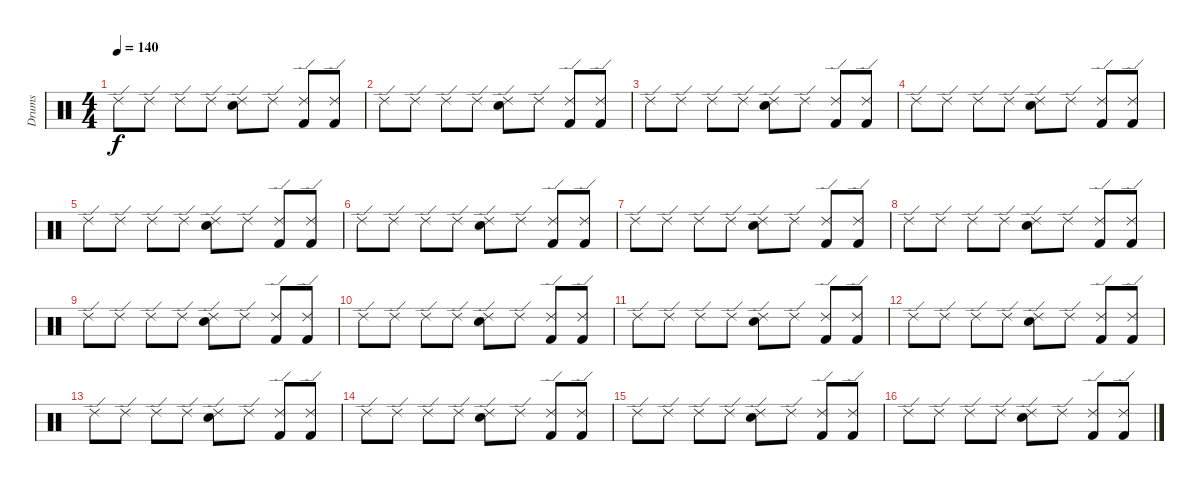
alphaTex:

\track ("Drums" "Drums") {instrument percussion}
\staff {score}
\articulation defaults
\ts (4 4)
\tempo 140
\clef neutral
\ks c "Ride (edge) 2".8{dy f} "Ride (edge) 2".8 "Ride (edge) 2".8 "Ride (edge) 2".8
("Ride (edge) 2" "Snare (hit) 2").8 "Ride (edge) 2".8 ("Ride (edge) 2" "Kick (hit) 2").8 ("Ride (edge) 2" "Kick (hit) 2").8 |
"Ride (edge) 2".8 "Ride (edge) 2".8 "Ride (edge) 2".8 "Ride (edge) 2".8 ("Ride (edge) 2" "Snare (hit) 2").8 "Ride (edge) 2".8 ("Ride (edge) 2" "Kick (hit) 2").8 ("Ride (edge) 2" "Kick (hit) 2").8 |
"Ride (edge) 2".8 "Ride (edge) 2".8 "Ride (edge) 2".8 "Ride (edge) 2".8 ("Ride (edge) 2" "Snare (hit) 2").8 "Ride (edge) 2".8 ("Ride (edge) 2" "Kick (hit) 2").8 ("Ride (edge) 2" "Kick (hit) 2").8 |
"Ride (edge) 2".8 "Ride (edge) 2".8 "Ride (edge) 2".8 "Ride (edge) 2".8 ("Ride (edge) 2" "Snare (hit) 2").8 "Ride (edge) 2".8 ("Ride (edge) 2" "Kick (hit) 2").8 ("Ride (edge) 2" "Kick (hit) 2").8 |
"Ride (edge) 2".8 "Ride (edge) 2".8 "Ride (edge) 2".8 "Ride (edge) 2".8 ("Ride (edge) 2" "Snare (hit) 2").8 "Ride (edge) 2".8 ("Ride (edge) 2" "Kick (hit) 2").8 ("Ride (edge) 2" "Kick (hit) 2").8 |
"Ride (edge) 2".8 "Ride (edge) 2".8 "Ride (edge) 2".8 "Ride (edge) 2".8 ("Ride (edge) 2" "Snare (hit) 2").8 "Ride (edge) 2".8 ("Ride (edge) 2" "Kick (hit) 2").8 ("Ride (edge) 2" "Kick (hit) 2").8 |
"Ride (edge) 2".8 "Ride (edge) 2".8 "Ride (edge) 2".8 "Ride (edge) 2".8 ("Ride (edge) 2" "Snare (hit) 2").8 "Ride (edge) 2".8 ("Ride (edge) 2" "Kick (hit) 2").8 ("Ride (edge) 2" "Kick (hit) 2").8 |
"Ride (edge) 2".8 "Ride (edge) 2".8 "Ride (edge) 2".8 "Ride (edge) 2".8 ("Ride (edge) 2" "Snare (hit) 2").8 "Ride (edge) 2".8 ("Ride (edge) 2" "Kick (hit) 2").8 ("Ride (edge) 2" "Kick (hit) 2").8 |
"Ride (edge) 2".8 "Ride (edge) 2".8 "Ride (edge) 2".8 "Ride (edge) 2".8 ("Ride (edge) 2" "Snare (hit) 2").8 "Ride (edge) 2".8 ("Ride (edge) 2" "Kick (hit) 2").8 ("Ride (edge) 2" "Kick (hit) 2").8 |
"Ride (edge) 2".8 "Ride (edge) 2".8 "Ride (edge) 2".8 "Ride (edge) 2".8 ("Ride (edge) 2" "Snare (hit) 2").8 "Ride (edge) 2".8 ("Ride (edge) 2" "Kick (hit) 2").8 ("Ride (edge) 2" "Kick (hit) 2").8 |
"Ride (edge) 2".8 "Ride (edge) 2".8 "Ride (edge) 2".8 "Ride (edge) 2".8 ("Ride (edge) 2" "Snare (hit) 2").8 "Ride (edge) 2".8 ("Ride (edge) 2" "Kick (hit) 2").8 ("Ride (edge) 2" "Kick (hit) 2").8 |
"Ride (edge) 2".8 "Ride (edge) 2".8 "Ride (edge) 2".8 "Ride (edge) 2".8 ("Ride (edge) 2" "Snare (hit) 2").8 "Ride (edge) 2".8 ("Ride (edge) 2" "Kick (hit) 2").8 ("Ride (edge) 2" "Kick (hit) 2").8 |
"Ride (edge) 2".8 "Ride (edge) 2".8 "Ride (edge) 2".8 "Ride (edge) 2".8 ("Ride (edge) 2" "Snare (hit) 2").8 "Ride (edge) 2".8 ("Ride (edge) 2" "Kick (hit) 2").8 ("Ride (edge) 2" "Kick (hit) 2").8 |
"Ride (edge) 2".8 "Ride (edge) 2".8 "Ride (edge) 2".8 "Ride (edge) 2".8 ("Ride (edge) 2" "Snare (hit) 2").8 "Ride (edge) 2".8 ("Ride (edge) 2" "Kick (hit) 2").8 ("Ride (edge) 2" "Kick (hit) 2").8 |
"Ride (edge) 2".8 "Ride (edge) 2".8 "Ride (edge) 2".8 "Ride (edge) 2".8 ("Ride (edge) 2" "Snare (hit) 2").8 "Ride (edge) 2".8 ("Ride (edge) 2" "Kick (hit) 2").8 ("Ride (edge) 2" "Kick (hit) 2").8 |
"Ride (edge) 2".8 "Ride (edge) 2".8 "Ride (edge) 2".8 "Ride (edge) 2".8 ("Ride (edge) 2" "Snare (hit) 2").8 "Ride (edge) 2".8 ("Ride (edge) 2" "Kick (hit) 2").8 ("Ride (edge) 2" "Kick (hit) 2").8
